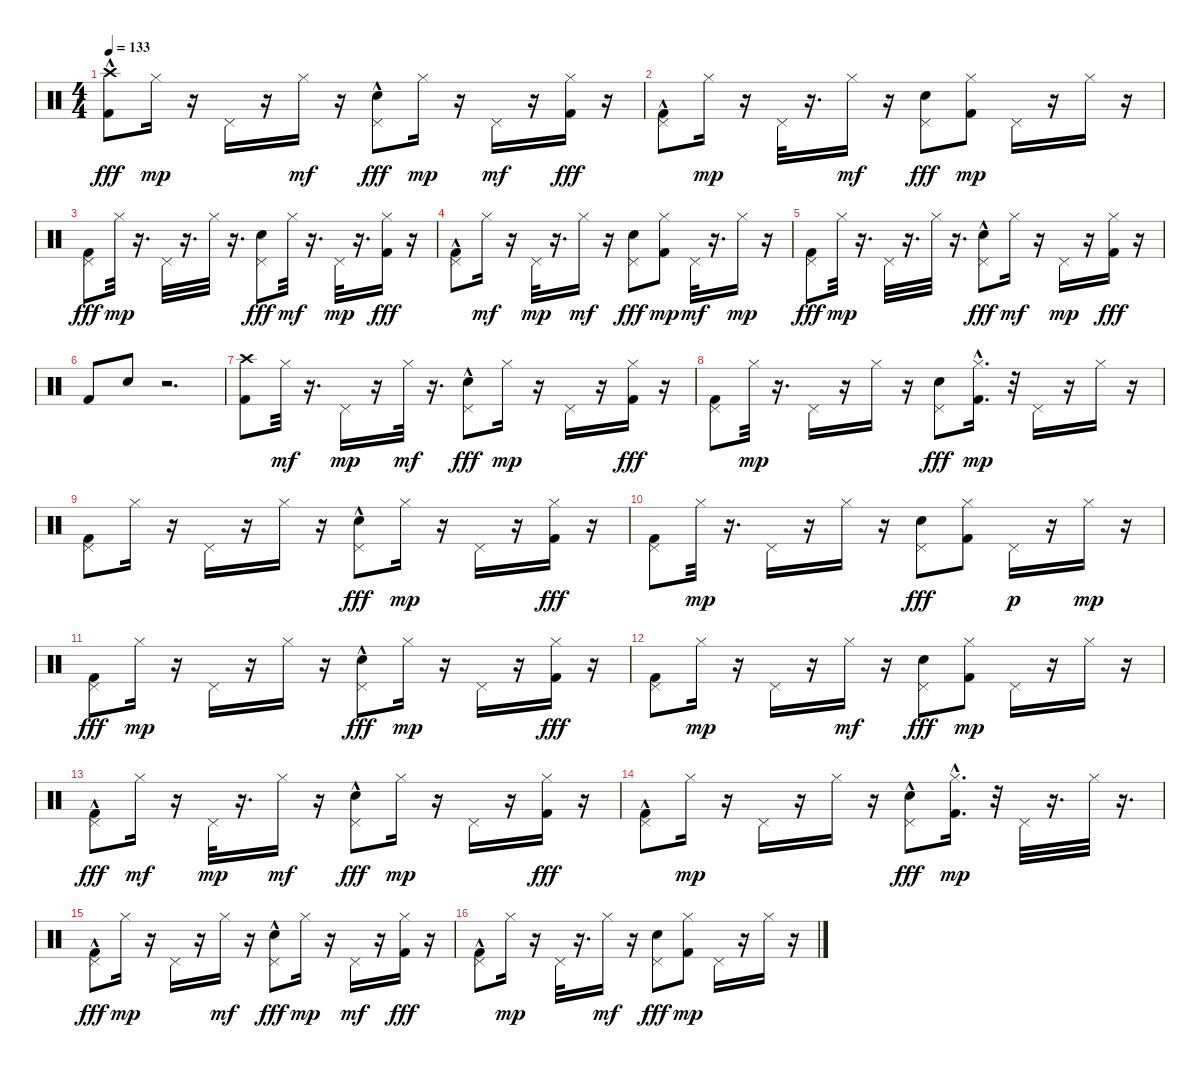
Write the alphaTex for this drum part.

\track "" {instrument percussion}
\staff {score}
\articulation defaults
\ts (4 4)
\tempo 133
\clef neutral
\ks c
("Crash high (hit)" "Kick (hit) 2"{hac}).8{dy fff} "Hi-Hat (closed)".16{dy mp} r.16 "Pedal Hi-Hat (hit)".16 r.16 "Hi-Hat (closed)".16{dy mf} r.16 ("Pedal Hi-Hat (hit)" "Snare (hit) 2"{hac}).8{dy fff} "Hi-Hat (closed)".16{dy mp} r.16 "Pedal Hi-Hat (hit)".16{dy mf} r.16 ("Hi-Hat (closed)" "Kick (hit) 2").16{dy fff} r.16 |
("Pedal Hi-Hat (hit)" "Kick (hit) 2"{hac}).8 "Hi-Hat (closed)".16{dy mp} r.16 "Pedal Hi-Hat (hit)".32 r.16{d} "Hi-Hat (closed)".16{dy mf} r.16 ("Pedal Hi-Hat (hit)" "Snare (hit) 2").8{dy fff} ("Kick (hit) 2" "Hi-Hat (closed)").8{dy mp} "Pedal Hi-Hat (hit)".16 r.16 "Hi-Hat (closed)".16 r.16 |
("Pedal Hi-Hat (hit)" "Kick (hit) 2").8{dy fff} "Hi-Hat (closed)".32{dy mp} r.16{d} "Pedal Hi-Hat (hit)".32 r.16{d} "Hi-Hat (closed)".32 r.16{d} ("Pedal Hi-Hat (hit)" "Snare (hit) 2").8{dy fff} "Hi-Hat (closed)".32{dy mf} r.16{d} "Pedal Hi-Hat (hit)".32{dy mp} r.16{d} ("Hi-Hat (closed)" "Kick (hit) 2").16{dy fff} r.16 |
("Pedal Hi-Hat (hit)" "Kick (hit) 2"{hac}).8 "Hi-Hat (closed)".16{dy mf} r.16 "Pedal Hi-Hat (hit)".32{dy mp} r.16{d} "Hi-Hat (closed)".16{dy mf} r.16 ("Pedal Hi-Hat (hit)" "Snare (hit) 2").8{dy fff} ("Kick (hit) 2" "Hi-Hat (closed)").8{dy mp} "Pedal Hi-Hat (hit)".32{dy mf} r.16{d} "Hi-Hat (closed)".16{dy mp} r.16 |
("Pedal Hi-Hat (hit)" "Kick (hit) 2").8{dy fff} "Hi-Hat (closed)".32{dy mp} r.16{d} "Pedal Hi-Hat (hit)".32 r.16{d} "Hi-Hat (closed)".32 r.16{d} ("Pedal Hi-Hat (hit)" "Snare (hit) 2"{hac}).8{dy fff} "Hi-Hat (closed)".16{dy mf} r.16 "Pedal Hi-Hat (hit)".16{dy mp} r.16 ("Hi-Hat (closed)" "Kick (hit) 2").16{dy fff} r.16 |
"Kick (hit) 2".8 "Snare (hit) 2".8 r.2{d} |
("Crash high (hit)" "Kick (hit) 2").8 "Hi-Hat (closed)".32{dy mf} r.16{d} "Pedal Hi-Hat (hit)".16{dy mp} r.16 "Hi-Hat (closed)".32{dy mf} r.16{d} ("Pedal Hi-Hat (hit)" "Snare (hit) 2"{hac}).8{dy fff} "Hi-Hat (closed)".16{dy mp} r.16 "Pedal Hi-Hat (hit)".16 r.16 ("Hi-Hat (closed)" "Kick (hit) 2").16{dy fff} r.16 |
("Pedal Hi-Hat (hit)" "Kick (hit) 2").8 "Hi-Hat (closed)".32{dy mp} r.16{d} "Pedal Hi-Hat (hit)".16 r.16 "Hi-Hat (closed)".16 r.16 ("Pedal Hi-Hat (hit)" "Snare (hit) 2").8{dy fff} ("Kick (hit) 2"{hac} "Hi-Hat (closed)").16{d dy mp} r.32 "Pedal Hi-Hat (hit)".16 r.16 "Hi-Hat (closed)".16 r.16 |
("Kick (hit) 2" "Pedal Hi-Hat (hit)").8 "Hi-Hat (closed)".16 r.16 "Pedal Hi-Hat (hit)".16 r.16 "Hi-Hat (closed)".16 r.16 ("Pedal Hi-Hat (hit)" "Snare (hit) 2"{hac}).8{dy fff} "Hi-Hat (closed)".16{dy mp} r.16 "Pedal Hi-Hat (hit)".16 r.16 ("Hi-Hat (closed)" "Kick (hit) 2").16{dy fff} r.16 |
("Pedal Hi-Hat (hit)" "Kick (hit) 2").8 "Hi-Hat (closed)".32{dy mp} r.16{d} "Pedal Hi-Hat (hit)".16 r.16 "Hi-Hat (closed)".16 r.16 ("Pedal Hi-Hat (hit)" "Snare (hit) 2").8{dy fff} ("Hi-Hat (closed)" "Kick (hit) 2").8 "Pedal Hi-Hat (hit)".16{dy p} r.16 "Hi-Hat (closed)".16{dy mp} r.16 |
("Pedal Hi-Hat (hit)" "Kick (hit) 2").8{dy fff} "Hi-Hat (closed)".16{dy mp} r.16 "Pedal Hi-Hat (hit)".16 r.16 "Hi-Hat (closed)".16 r.16 ("Pedal Hi-Hat (hit)" "Snare (hit) 2"{hac}).8{dy fff} "Hi-Hat (closed)".16{dy mp} r.16 "Pedal Hi-Hat (hit)".16 r.16 ("Hi-Hat (closed)" "Kick (hit) 2").16{dy fff} r.16 |
("Pedal Hi-Hat (hit)" "Kick (hit) 2").8 "Hi-Hat (closed)".16{dy mp} r.16 "Pedal Hi-Hat (hit)".16 r.16 "Hi-Hat (closed)".16{dy mf} r.16 ("Pedal Hi-Hat (hit)" "Snare (hit) 2").8{dy fff} ("Kick (hit) 2" "Hi-Hat (closed)").8{dy mp} "Pedal Hi-Hat (hit)".16 r.16 "Hi-Hat (closed)".16 r.16 |
("Pedal Hi-Hat (hit)" "Kick (hit) 2"{hac}).8{dy fff} "Hi-Hat (closed)".16{dy mf} r.16 "Pedal Hi-Hat (hit)".32{dy mp} r.16{d} "Hi-Hat (closed)".16{dy mf} r.16 ("Pedal Hi-Hat (hit)" "Snare (hit) 2"{hac}).8{dy fff} "Hi-Hat (closed)".16{dy mp} r.16 "Pedal Hi-Hat (hit)".16 r.16 ("Hi-Hat (closed)" "Kick (hit) 2").16{dy fff} r.16 |
("Pedal Hi-Hat (hit)" "Kick (hit) 2"{hac}).8 "Hi-Hat (closed)".16{dy mp} r.16 "Pedal Hi-Hat (hit)".16 r.16 "Hi-Hat (closed)".16 r.16 ("Pedal Hi-Hat (hit)" "Snare (hit) 2"{hac}).8{dy fff} ("Kick (hit) 2"{hac} "Hi-Hat (closed)").16{d dy mp} r.32 "Pedal Hi-Hat (hit)".32 r.16{d} "Hi-Hat (closed)".32 r.16{d} |
("Pedal Hi-Hat (hit)" "Kick (hit) 2"{hac}).8{dy fff} "Hi-Hat (closed)".16{dy mp} r.16 "Pedal Hi-Hat (hit)".16 r.16 "Hi-Hat (closed)".16{dy mf} r.16 ("Pedal Hi-Hat (hit)" "Snare (hit) 2"{hac}).8{dy fff} "Hi-Hat (closed)".16{dy mp} r.16 "Pedal Hi-Hat (hit)".16{dy mf} r.16 ("Hi-Hat (closed)" "Kick (hit) 2").16{dy fff} r.16 |
("Pedal Hi-Hat (hit)" "Kick (hit) 2"{hac}).8 "Hi-Hat (closed)".16{dy mp} r.16 "Pedal Hi-Hat (hit)".32 r.16{d} "Hi-Hat (closed)".16{dy mf} r.16 ("Pedal Hi-Hat (hit)" "Snare (hit) 2").8{dy fff} ("Kick (hit) 2" "Hi-Hat (closed)").8{dy mp} "Pedal Hi-Hat (hit)".16 r.16 "Hi-Hat (closed)".16 r.16
